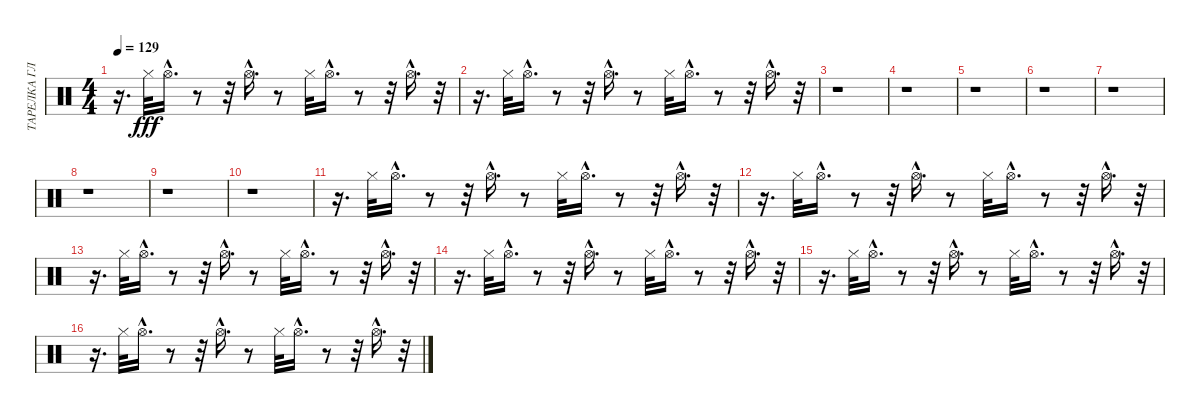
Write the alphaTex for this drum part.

\track ("ТАРЕЛКА ГЛУХАЯ" "ТАРЕЛКА ГЛ") {instrument percussion}
\staff {score}
\articulation defaults
\ts (4 4)
\tempo 129
\clef neutral
\ks c
r.16{d dy fff} "Hi-Hat (closed)".32 "Hi-Hat (open)"{hac}.16{d} r.8 r.32 "Hi-Hat (open)"{hac}.16{d} r.8 "Hi-Hat (closed)".32 "Hi-Hat (open)"{hac}.16{d} r.8 r.32 "Hi-Hat (open)"{hac}.16{d} r.32 |
r.16{d} "Hi-Hat (closed)".32 "Hi-Hat (open)"{hac}.16{d} r.8 r.32 "Hi-Hat (open)"{hac}.16{d} r.8 "Hi-Hat (closed)".32 "Hi-Hat (open)"{hac}.16{d} r.8 r.32 "Hi-Hat (open)"{hac}.16{d} r.32 |
r.1 |
r.1 |
r.1 |
r.1 |
r.1 |
r.1 |
r.1 |
r.1 |
r.16{d} "Hi-Hat (closed)".32 "Hi-Hat (open)"{hac}.16{d} r.8 r.32 "Hi-Hat (open)"{hac}.16{d} r.8 "Hi-Hat (closed)".32 "Hi-Hat (open)"{hac}.16{d} r.8 r.32 "Hi-Hat (open)"{hac}.16{d} r.32 |
r.16{d} "Hi-Hat (closed)".32 "Hi-Hat (open)"{hac}.16{d} r.8 r.32 "Hi-Hat (open)"{hac}.16{d} r.8 "Hi-Hat (closed)".32 "Hi-Hat (open)"{hac}.16{d} r.8 r.32 "Hi-Hat (open)"{hac}.16{d} r.32 |
r.16{d} "Hi-Hat (closed)".32 "Hi-Hat (open)"{hac}.16{d} r.8 r.32 "Hi-Hat (open)"{hac}.16{d} r.8 "Hi-Hat (closed)".32 "Hi-Hat (open)"{hac}.16{d} r.8 r.32 "Hi-Hat (open)"{hac}.16{d} r.32 |
r.16{d} "Hi-Hat (closed)".32 "Hi-Hat (open)"{hac}.16{d} r.8 r.32 "Hi-Hat (open)"{hac}.16{d} r.8 "Hi-Hat (closed)".32 "Hi-Hat (open)"{hac}.16{d} r.8 r.32 "Hi-Hat (open)"{hac}.16{d} r.32 |
r.16{d} "Hi-Hat (closed)".32 "Hi-Hat (open)"{hac}.16{d} r.8 r.32 "Hi-Hat (open)"{hac}.16{d} r.8 "Hi-Hat (closed)".32 "Hi-Hat (open)"{hac}.16{d} r.8 r.32 "Hi-Hat (open)"{hac}.16{d} r.32 |
r.16{d} "Hi-Hat (closed)".32 "Hi-Hat (open)"{hac}.16{d} r.8 r.32 "Hi-Hat (open)"{hac}.16{d} r.8 "Hi-Hat (closed)".32 "Hi-Hat (open)"{hac}.16{d} r.8 r.32 "Hi-Hat (open)"{hac}.16{d} r.32
